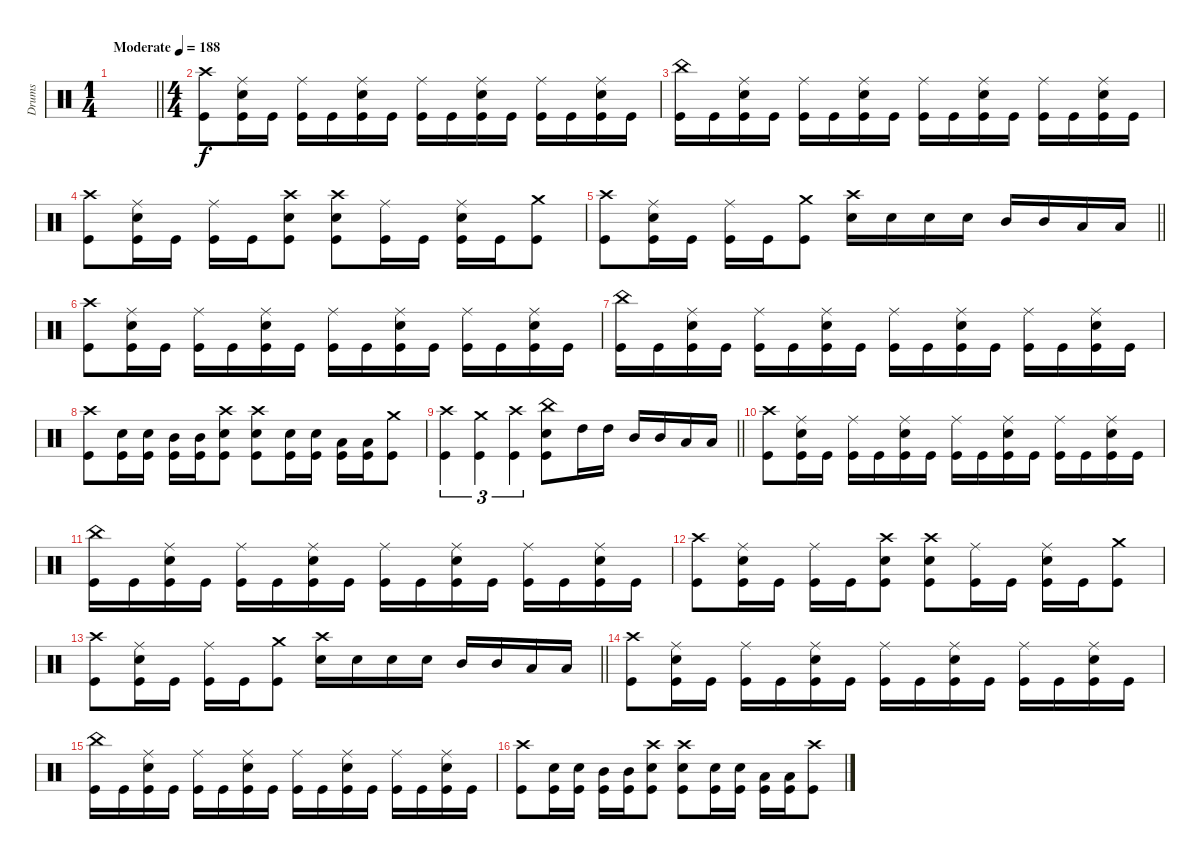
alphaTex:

\track ("Drums" "Drums") {instrument percussion}
\staff
\articulation defaults
\ts (1 4)
\tempo (188 "Moderate")
\clef neutral
\barLineRight lightlight
\ks c
|
\ts (4 4)
("Crash high (hit)" "Kick (hit)").8 ("Ride (middle)" "Electric Snare (hit)" "Kick (hit)").16 "Kick (hit)".16 ("Ride (middle)" "Kick (hit)").16 "Kick (hit)".16 ("Ride (middle)" "Electric Snare (hit)" "Kick (hit)").16 "Kick (hit)".16 ("Ride (middle)" "Kick (hit)").16 "Kick (hit)".16 ("Ride (middle)" "Electric Snare (hit)" "Kick (hit)").16 "Kick (hit)".16 ("Ride (middle)" "Kick (hit)").16 "Kick (hit)".16 ("Ride (middle)" "Electric Snare (hit)" "Kick (hit)").16 "Kick (hit)".16 |
("China (hit)" "Kick (hit)").16 "Kick (hit)".16 ("Ride (middle)" "Electric Snare (hit)" "Kick (hit)").16 "Kick (hit)".16 ("Ride (middle)" "Kick (hit)").16 "Kick (hit)".16 ("Ride (middle)" "Electric Snare (hit)" "Kick (hit)").16 "Kick (hit)".16 ("Ride (middle)" "Kick (hit)").16 "Kick (hit)".16 ("Ride (middle)" "Electric Snare (hit)" "Kick (hit)").16 "Kick (hit)".16 ("Ride (middle)" "Kick (hit)").16 "Kick (hit)".16 ("Ride (middle)" "Electric Snare (hit)" "Kick (hit)").16 "Kick (hit)".16 |
("Crash high (hit)" "Kick (hit)").8 ("Ride (middle)" "Electric Snare (hit)" "Kick (hit)").16 "Kick (hit)".16 ("Ride (middle)" "Kick (hit)").16 "Kick (hit)".16 ("Crash high (hit)" "Electric Snare (hit)" "Kick (hit)").8 ("Crash high (hit)" "Electric Snare (hit)" "Kick (hit)").8 ("Ride (middle)" "Kick (hit)").16 "Kick (hit)".16 ("Ride (middle)" "Electric Snare (hit)" "Kick (hit)").16 "Kick (hit)".16 ("Crash medium (hit)" "Kick (hit)").8 |
\barLineRight lightlight
("Crash high (hit)" "Kick (hit)").8 ("Ride (middle)" "Electric Snare (hit)" "Kick (hit)").16 "Kick (hit)".16 ("Ride (middle)" "Kick (hit)").16 "Kick (hit)".16 ("Crash medium (hit)" "Kick (hit)").8 ("Crash high (hit)" "Electric Snare (hit)").16 "Electric Snare (hit)".16 "Electric Snare (hit)".16 "Electric Snare (hit)".16 "Mid Tom (hit)".16 "Mid Tom (hit)".16 "Low Tom (hit)".16 "Low Tom (hit)".16 |
("Crash high (hit)" "Kick (hit)").8 ("Ride (middle)" "Electric Snare (hit)" "Kick (hit)").16 "Kick (hit)".16 ("Ride (middle)" "Kick (hit)").16 "Kick (hit)".16 ("Ride (middle)" "Electric Snare (hit)" "Kick (hit)").16 "Kick (hit)".16 ("Ride (middle)" "Kick (hit)").16 "Kick (hit)".16 ("Ride (middle)" "Electric Snare (hit)" "Kick (hit)").16 "Kick (hit)".16 ("Ride (middle)" "Kick (hit)").16 "Kick (hit)".16 ("Ride (middle)" "Electric Snare (hit)" "Kick (hit)").16 "Kick (hit)".16 |
("China (hit)" "Kick (hit)").16 "Kick (hit)".16 ("Ride (middle)" "Electric Snare (hit)" "Kick (hit)").16 "Kick (hit)".16 ("Ride (middle)" "Kick (hit)").16 "Kick (hit)".16 ("Ride (middle)" "Electric Snare (hit)" "Kick (hit)").16 "Kick (hit)".16 ("Ride (middle)" "Kick (hit)").16 "Kick (hit)".16 ("Ride (middle)" "Electric Snare (hit)" "Kick (hit)").16 "Kick (hit)".16 ("Ride (middle)" "Kick (hit)").16 "Kick (hit)".16 ("Ride (middle)" "Electric Snare (hit)" "Kick (hit)").16 "Kick (hit)".16 |
("Crash high (hit)" "Kick (hit)").8 ("Electric Snare (hit)" "Kick (hit)").16 ("Electric Snare (hit)" "Kick (hit)").16 ("Mid Tom (hit)" "Kick (hit)").16 ("Mid Tom (hit)" "Kick (hit)").16 ("Crash high (hit)" "Electric Snare (hit)" "Kick (hit)").8 ("Crash high (hit)" "Electric Snare (hit)" "Kick (hit)").8 ("Electric Snare (hit)" "Kick (hit)").16 ("Electric Snare (hit)" "Kick (hit)").16 ("Low Tom (hit)" "Kick (hit)").16 ("Low Tom (hit)" "Kick (hit)").16 ("Crash medium (hit)" "Kick (hit)").8 |
\barLineRight lightlight
("Crash high (hit)" "Kick (hit)").4{tu (3 2)} ("Crash medium (hit)" "Kick (hit)").4{tu (3 2)} ("Crash high (hit)" "Kick (hit)").4{tu (3 2)} ("China (hit)" "Electric Snare (hit)" "Kick (hit)").8 "High Tom (hit)".16 "High Tom (hit)".16 "Mid Tom (hit)".16 "Mid Tom (hit)".16 "Low Tom (hit)".16 "Low Tom (hit)".16 |
("Crash high (hit)" "Kick (hit)").8 ("Ride (middle)" "Electric Snare (hit)" "Kick (hit)").16 "Kick (hit)".16 ("Ride (middle)" "Kick (hit)").16 "Kick (hit)".16 ("Ride (middle)" "Electric Snare (hit)" "Kick (hit)").16 "Kick (hit)".16 ("Ride (middle)" "Kick (hit)").16 "Kick (hit)".16 ("Ride (middle)" "Electric Snare (hit)" "Kick (hit)").16 "Kick (hit)".16 ("Ride (middle)" "Kick (hit)").16 "Kick (hit)".16 ("Ride (middle)" "Electric Snare (hit)" "Kick (hit)").16 "Kick (hit)".16 |
("China (hit)" "Kick (hit)").16 "Kick (hit)".16 ("Ride (middle)" "Electric Snare (hit)" "Kick (hit)").16 "Kick (hit)".16 ("Ride (middle)" "Kick (hit)").16 "Kick (hit)".16 ("Ride (middle)" "Electric Snare (hit)" "Kick (hit)").16 "Kick (hit)".16 ("Ride (middle)" "Kick (hit)").16 "Kick (hit)".16 ("Ride (middle)" "Electric Snare (hit)" "Kick (hit)").16 "Kick (hit)".16 ("Ride (middle)" "Kick (hit)").16 "Kick (hit)".16 ("Ride (middle)" "Electric Snare (hit)" "Kick (hit)").16 "Kick (hit)".16 |
("Crash high (hit)" "Kick (hit)").8 ("Ride (middle)" "Electric Snare (hit)" "Kick (hit)").16 "Kick (hit)".16 ("Ride (middle)" "Kick (hit)").16 "Kick (hit)".16 ("Crash high (hit)" "Electric Snare (hit)" "Kick (hit)").8 ("Crash high (hit)" "Electric Snare (hit)" "Kick (hit)").8 ("Ride (middle)" "Kick (hit)").16 "Kick (hit)".16 ("Ride (middle)" "Electric Snare (hit)" "Kick (hit)").16 "Kick (hit)".16 ("Crash medium (hit)" "Kick (hit)").8 |
\barLineRight lightlight
("Crash high (hit)" "Kick (hit)").8 ("Ride (middle)" "Electric Snare (hit)" "Kick (hit)").16 "Kick (hit)".16 ("Ride (middle)" "Kick (hit)").16 "Kick (hit)".16 ("Crash medium (hit)" "Kick (hit)").8 ("Crash high (hit)" "Electric Snare (hit)").16 "Electric Snare (hit)".16 "Electric Snare (hit)".16 "Electric Snare (hit)".16 "Mid Tom (hit)".16 "Mid Tom (hit)".16 "Low Tom (hit)".16 "Low Tom (hit)".16 |
("Crash high (hit)" "Kick (hit)").8 ("Ride (middle)" "Electric Snare (hit)" "Kick (hit)").16 "Kick (hit)".16 ("Ride (middle)" "Kick (hit)").16 "Kick (hit)".16 ("Ride (middle)" "Electric Snare (hit)" "Kick (hit)").16 "Kick (hit)".16 ("Ride (middle)" "Kick (hit)").16 "Kick (hit)".16 ("Ride (middle)" "Electric Snare (hit)" "Kick (hit)").16 "Kick (hit)".16 ("Ride (middle)" "Kick (hit)").16 "Kick (hit)".16 ("Ride (middle)" "Electric Snare (hit)" "Kick (hit)").16 "Kick (hit)".16 |
("China (hit)" "Kick (hit)").16 "Kick (hit)".16 ("Ride (middle)" "Electric Snare (hit)" "Kick (hit)").16 "Kick (hit)".16 ("Ride (middle)" "Kick (hit)").16 "Kick (hit)".16 ("Ride (middle)" "Electric Snare (hit)" "Kick (hit)").16 "Kick (hit)".16 ("Ride (middle)" "Kick (hit)").16 "Kick (hit)".16 ("Ride (middle)" "Electric Snare (hit)" "Kick (hit)").16 "Kick (hit)".16 ("Ride (middle)" "Kick (hit)").16 "Kick (hit)".16 ("Ride (middle)" "Electric Snare (hit)" "Kick (hit)").16 "Kick (hit)".16 |
("Crash high (hit)" "Kick (hit)").8 ("Electric Snare (hit)" "Kick (hit)").16 ("Electric Snare (hit)" "Kick (hit)").16 ("Mid Tom (hit)" "Kick (hit)").16 ("Mid Tom (hit)" "Kick (hit)").16 ("Crash high (hit)" "Electric Snare (hit)" "Kick (hit)").8 ("Crash high (hit)" "Electric Snare (hit)" "Kick (hit)").8 ("Electric Snare (hit)" "Kick (hit)").16 ("Electric Snare (hit)" "Kick (hit)").16 ("Low Tom (hit)" "Kick (hit)").16 ("Low Tom (hit)" "Kick (hit)").16 ("Crash high (hit)" "Kick (hit)").8
